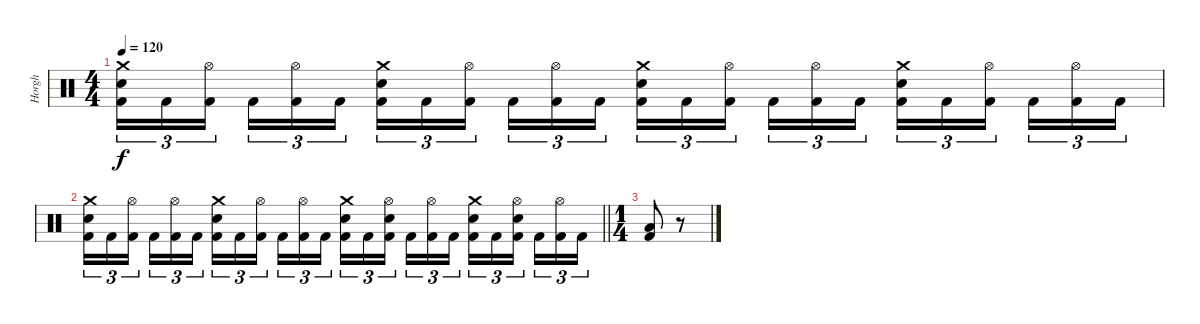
\track ("Horgh" "Horgh") {instrument percussion}
\staff {score}
\articulation defaults
\ts (4 4)
\tempo 120
\clef neutral
\ks c
("Crash medium (hit)" "Electric Snare (hit)" "Kick (hit) 2").16{tu (3 2) dy f} "Kick (hit) 2".16{tu (3 2)} ("Hi-Hat (open)" "Kick (hit) 2").16{tu (3 2) beam splitsecondary} "Kick (hit) 2".16{tu (3 2)} ("Hi-Hat (open)" "Kick (hit) 2").16{tu (3 2)} "Kick (hit) 2".16{tu (3 2)} ("Crash medium (hit)" "Electric Snare (hit)" "Kick (hit) 2").16{tu (3 2)} "Kick (hit) 2".16{tu (3 2)} ("Hi-Hat (open)" "Kick (hit) 2").16{tu (3 2) beam splitsecondary} "Kick (hit) 2".16{tu (3 2)} ("Hi-Hat (open)" "Kick (hit) 2").16{tu (3 2)} "Kick (hit) 2".16{tu (3 2)} ("Crash medium (hit)" "Electric Snare (hit)" "Kick (hit) 2").16{tu (3 2)} "Kick (hit) 2".16{tu (3 2)} ("Hi-Hat (open)" "Kick (hit) 2").16{tu (3 2) beam splitsecondary} "Kick (hit) 2".16{tu (3 2)} ("Hi-Hat (open)" "Kick (hit) 2").16{tu (3 2)} "Kick (hit) 2".16{tu (3 2)} ("Crash medium (hit)" "Electric Snare (hit)" "Kick (hit) 2").16{tu (3 2)} "Kick (hit) 2".16{tu (3 2)} ("Hi-Hat (open)" "Kick (hit) 2").16{tu (3 2) beam splitsecondary} "Kick (hit) 2".16{tu (3 2)} ("Hi-Hat (open)" "Kick (hit) 2").16{tu (3 2)} "Kick (hit) 2".16{tu (3 2)} |
\barLineRight lightlight
("Crash medium (hit)" "Electric Snare (hit)" "Kick (hit) 2").16{tu (3 2)} "Kick (hit) 2".16{tu (3 2)} ("Hi-Hat (open)" "Kick (hit) 2").16{tu (3 2) beam splitsecondary} "Kick (hit) 2".16{tu (3 2)} ("Hi-Hat (open)" "Kick (hit) 2").16{tu (3 2)} "Kick (hit) 2".16{tu (3 2)} ("Crash medium (hit)" "Electric Snare (hit)" "Kick (hit) 2").16{tu (3 2)} "Kick (hit) 2".16{tu (3 2)} ("Hi-Hat (open)" "Kick (hit) 2").16{tu (3 2) beam splitsecondary} "Kick (hit) 2".16{tu (3 2)} ("Hi-Hat (open)" "Kick (hit) 2").16{tu (3 2)} "Kick (hit) 2".16{tu (3 2)} ("Crash medium (hit)" "Electric Snare (hit)" "Kick (hit) 2").16{tu (3 2)} "Kick (hit) 2".16{tu (3 2)} ("Hi-Hat (open)" "Electric Snare (hit)" "Kick (hit) 2").16{tu (3 2) beam splitsecondary} "Kick (hit) 2".16{tu (3 2)} ("Hi-Hat (open)" "Kick (hit) 2").16{tu (3 2)} "Kick (hit) 2".16{tu (3 2)} ("Crash medium (hit)" "Electric Snare (hit)" "Kick (hit) 2").16{tu (3 2)} "Kick (hit) 2".16{tu (3 2)} ("Hi-Hat (open)" "Electric Snare (hit)" "Kick (hit) 2").16{tu (3 2) beam splitsecondary} "Kick (hit) 2".16{tu (3 2)} ("Hi-Hat (open)" "Kick (hit) 2").16{tu (3 2)} "Kick (hit) 2".16{tu (3 2)} |
\ts (1 4)
("Low Tom (hit)" "Kick (hit) 2").8 r.8
